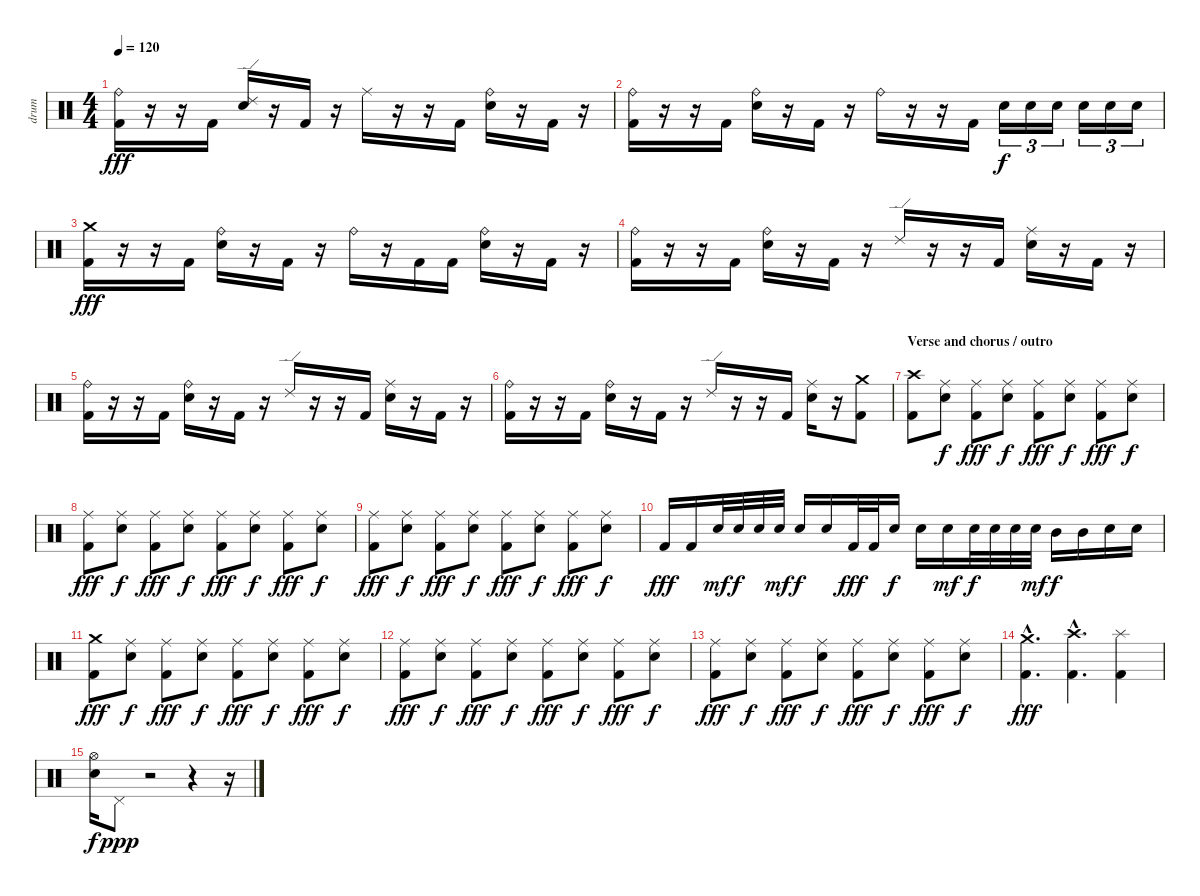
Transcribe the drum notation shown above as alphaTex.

\track ("drum" "drum") {instrument percussion}
\staff {score}
\articulation defaults
\ts (4 4)
\tempo 120
\clef neutral
\ks c
("Ride (bell)" "Kick (hit) 2").16{dy fff} r.16 r.16 "Kick (hit) 2".16 ("Ride (edge) 2" "Electric Snare (hit)").16 r.16 "Kick (hit) 2".16 r.16 "Ride (middle)".16 r.16 r.16 "Kick (hit) 2".16 ("Ride (bell)" "Electric Snare (hit)").16 r.16 "Kick (hit) 2".16 r.16 |
("Ride (bell)" "Kick (hit) 2").16 r.16 r.16 "Kick (hit) 2".16 ("Ride (bell)" "Electric Snare (hit)").16 r.16 "Kick (hit) 2".16 r.16 "Ride (bell)".16 r.16 r.16 "Kick (hit) 2".16 "Electric Snare (hit)".16{tu (3 2) dy f} "Electric Snare (hit)".16{tu (3 2)} "Electric Snare (hit)".16{tu (3 2)} "Electric Snare (hit)".16{tu (3 2)} "Electric Snare (hit)".16{tu (3 2)} "Electric Snare (hit)".16{tu (3 2)} |
("Crash medium (hit)" "Kick (hit) 2").16{dy fff} r.16 r.16 "Kick (hit) 2".16 ("Ride (bell)" "Electric Snare (hit)").16 r.16 "Kick (hit) 2".16 r.16 "Ride (bell)".16 r.16 "Kick (hit) 2".16 "Kick (hit) 2".16 ("Ride (bell)" "Electric Snare (hit)").16 r.16 "Kick (hit) 2".16 r.16 |
("Ride (bell)" "Kick (hit) 2").16 r.16 r.16 "Kick (hit) 2".16 ("Ride (bell)" "Electric Snare (hit)").16 r.16 "Kick (hit) 2".16 r.16 "Ride (edge) 2".16 r.16 r.16 "Kick (hit) 2".16 ("Ride (middle)" "Electric Snare (hit)").16 r.16 "Kick (hit) 2".16 r.16 |
("Ride (bell)" "Kick (hit) 2").16 r.16 r.16 "Kick (hit) 2".16 ("Ride (bell)" "Electric Snare (hit)").16 r.16 "Kick (hit) 2".16 r.16 "Ride (edge) 2".16 r.16 r.16 "Kick (hit) 2".16 ("Ride (middle)" "Electric Snare (hit)").16 r.16 "Kick (hit) 2".16 r.16 |
("Ride (bell)" "Kick (hit) 2").16 r.16 r.16 "Kick (hit) 2".16 ("Ride (bell)" "Electric Snare (hit)").16 r.16 "Kick (hit) 2".16 r.16 "Ride (edge) 2".16 r.16 r.16 "Kick (hit) 2".16 ("Ride (middle)" "Electric Snare (hit)").16 r.16 ("Crash medium (hit)" "Kick (hit) 2").8 |
\section ("" "Verse and chorus / outro")
("Crash high (hit)" "Kick (hit) 2").8 ("Ride (middle)" "Electric Snare (hit)").8{dy f} ("Ride (middle)" "Kick (hit) 2").8{dy fff} ("Ride (middle)" "Electric Snare (hit)").8{dy f} ("Ride (middle)" "Kick (hit) 2").8{dy fff} ("Ride (middle)" "Electric Snare (hit)").8{dy f} ("Ride (middle)" "Kick (hit) 2").8{dy fff} ("Ride (middle)" "Electric Snare (hit)").8{dy f} |
("Ride (middle)" "Kick (hit) 2").8{dy fff} ("Ride (middle)" "Electric Snare (hit)").8{dy f} ("Ride (middle)" "Kick (hit) 2").8{dy fff} ("Ride (middle)" "Electric Snare (hit)").8{dy f} ("Ride (middle)" "Kick (hit) 2").8{dy fff} ("Ride (middle)" "Electric Snare (hit)").8{dy f} ("Ride (middle)" "Kick (hit) 2").8{dy fff} ("Ride (middle)" "Electric Snare (hit)").8{dy f} |
("Ride (middle)" "Kick (hit) 2").8{dy fff} ("Ride (middle)" "Electric Snare (hit)").8{dy f} ("Ride (middle)" "Kick (hit) 2").8{dy fff} ("Ride (middle)" "Electric Snare (hit)").8{dy f} ("Ride (middle)" "Kick (hit) 2").8{dy fff} ("Ride (middle)" "Electric Snare (hit)").8{dy f} ("Ride (middle)" "Kick (hit) 2").8{dy fff} ("Ride (middle)" "Electric Snare (hit)").8{dy f} |
"Kick (hit) 2".16{dy fff} "Kick (hit) 2".16 "Electric Snare (hit)".32{dy mf} "Electric Snare (hit)".32{dy f} "Electric Snare (hit)".32 "Electric Snare (hit)".32{dy mf} "Electric Snare (hit)".16{dy f} "Electric Snare (hit)".16 "Kick (hit) 2".32{dy fff} "Kick (hit) 2".32 "Electric Snare (hit)".16{dy f} "Electric Snare (hit)".16 "Electric Snare (hit)".16{dy mf} "Electric Snare (hit)".32{dy f} "Electric Snare (hit)".32 "Electric Snare (hit)".32 "Electric Snare (hit)".32{dy mf} "Mid Tom (hit)".16{dy f} "Mid Tom (hit)".16 "Electric Snare (hit)".16 "Electric Snare (hit)".16 |
("Crash medium (hit)" "Kick (hit) 2").8{dy fff} ("Ride (middle)" "Electric Snare (hit)").8{dy f} ("Ride (middle)" "Kick (hit) 2").8{dy fff} ("Ride (middle)" "Electric Snare (hit)").8{dy f} ("Ride (middle)" "Kick (hit) 2").8{dy fff} ("Ride (middle)" "Electric Snare (hit)").8{dy f} ("Ride (middle)" "Kick (hit) 2").8{dy fff} ("Ride (middle)" "Electric Snare (hit)").8{dy f} |
("Ride (middle)" "Kick (hit) 2").8{dy fff} ("Ride (middle)" "Electric Snare (hit)").8{dy f} ("Ride (middle)" "Kick (hit) 2").8{dy fff} ("Ride (middle)" "Electric Snare (hit)").8{dy f} ("Ride (middle)" "Kick (hit) 2").8{dy fff} ("Ride (middle)" "Electric Snare (hit)").8{dy f} ("Ride (middle)" "Kick (hit) 2").8{dy fff} ("Ride (middle)" "Electric Snare (hit)").8{dy f} |
("Ride (middle)" "Kick (hit) 2").8{dy fff} ("Ride (middle)" "Electric Snare (hit)").8{dy f} ("Ride (middle)" "Kick (hit) 2").8{dy fff} ("Ride (middle)" "Electric Snare (hit)").8{dy f} ("Ride (middle)" "Kick (hit) 2").8{dy fff} ("Ride (middle)" "Electric Snare (hit)").8{dy f} ("Ride (middle)" "Kick (hit) 2").8{dy fff} ("Ride (middle)" "Electric Snare (hit)").8{dy f} |
("Crash medium (hit)"{hac} "Kick (hit) 2"{hac}).4{d dy fff} ("Crash high (hit)"{hac} "Kick (hit) 2"{hac}).4{d} ("Splash (hit)" "Kick (hit) 2").4 |
("Hi-Hat (open)" "Electric Snare (hit)").16{dy f} "Pedal Hi-Hat (hit)".8{dy ppp} r.2 r.4 r.16
